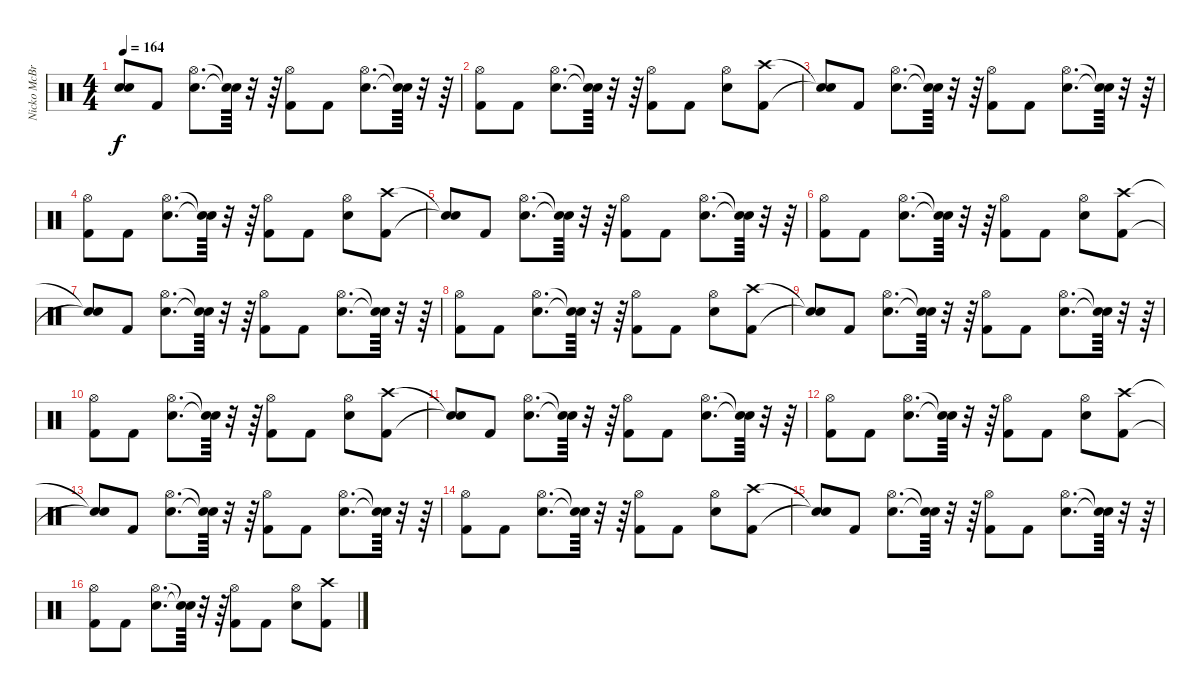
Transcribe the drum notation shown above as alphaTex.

\track ("Nicko McBrian (Drums)" "Nicko McBr") {instrument percussion}
\staff {score}
\articulation defaults
\ts (4 4)
\tempo 164
\clef neutral
\ks c
("Snare (hit)"{t} "Snare (hit)"{t}).8{dy f} "Kick (hit) 2".8 ("Snare (hit) 2" "Hi-Hat (open)").8{d} ("Snare (hit)"{t} "Snare (hit)"{t}).64 r.32 r.64 ("Kick (hit) 2" "Hi-Hat (open)").8 "Kick (hit) 2".8 ("Snare (hit) 2" "Hi-Hat (open)").8{d} ("Snare (hit)"{t} "Snare (hit)"{t}).64 r.32 r.64 |
("Kick (hit) 2" "Hi-Hat (open)").8 "Kick (hit) 2".8 ("Snare (hit) 2" "Hi-Hat (open)").8{d} ("Snare (hit)"{t} "Snare (hit)"{t}).64 r.32 r.64 ("Kick (hit) 2" "Hi-Hat (open)").8 "Kick (hit) 2".8 ("Snare (hit) 2" "Hi-Hat (open)").8 ("Kick (hit) 2" "Crash high (hit)").8 |
("Snare (hit)"{t} "Snare (hit)"{t}).8 "Kick (hit) 2".8 ("Snare (hit) 2" "Hi-Hat (open)").8{d} ("Snare (hit)"{t} "Snare (hit)"{t}).64 r.32 r.64 ("Kick (hit) 2" "Hi-Hat (open)").8 "Kick (hit) 2".8 ("Snare (hit) 2" "Hi-Hat (open)").8{d} ("Snare (hit)"{t} "Snare (hit)"{t}).64 r.32 r.64 |
("Kick (hit) 2" "Hi-Hat (open)").8 "Kick (hit) 2".8 ("Snare (hit) 2" "Hi-Hat (open)").8{d} ("Snare (hit)"{t} "Snare (hit)"{t}).64 r.32 r.64 ("Kick (hit) 2" "Hi-Hat (open)").8 "Kick (hit) 2".8 ("Snare (hit) 2" "Hi-Hat (open)").8 ("Kick (hit) 2" "Crash high (hit)").8 |
("Snare (hit)"{t} "Snare (hit)"{t}).8 "Kick (hit) 2".8 ("Snare (hit) 2" "Hi-Hat (open)").8{d} ("Snare (hit)"{t} "Snare (hit)"{t}).64 r.32 r.64 ("Kick (hit) 2" "Hi-Hat (open)").8 "Kick (hit) 2".8 ("Snare (hit) 2" "Hi-Hat (open)").8{d} ("Snare (hit)"{t} "Snare (hit)"{t}).64 r.32 r.64 |
("Kick (hit) 2" "Hi-Hat (open)").8 "Kick (hit) 2".8 ("Snare (hit) 2" "Hi-Hat (open)").8{d} ("Snare (hit)"{t} "Snare (hit)"{t}).64 r.32 r.64 ("Kick (hit) 2" "Hi-Hat (open)").8 "Kick (hit) 2".8 ("Snare (hit) 2" "Hi-Hat (open)").8 ("Kick (hit) 2" "Crash high (hit)").8 |
("Snare (hit)"{t} "Snare (hit)"{t}).8 "Kick (hit) 2".8 ("Snare (hit) 2" "Hi-Hat (open)").8{d} ("Snare (hit)"{t} "Snare (hit)"{t}).64 r.32 r.64 ("Kick (hit) 2" "Hi-Hat (open)").8 "Kick (hit) 2".8 ("Snare (hit) 2" "Hi-Hat (open)").8{d} ("Snare (hit)"{t} "Snare (hit)"{t}).64 r.32 r.64 |
("Kick (hit) 2" "Hi-Hat (open)").8 "Kick (hit) 2".8 ("Snare (hit) 2" "Hi-Hat (open)").8{d} ("Snare (hit)"{t} "Snare (hit)"{t}).64 r.32 r.64 ("Kick (hit) 2" "Hi-Hat (open)").8 "Kick (hit) 2".8 ("Snare (hit) 2" "Hi-Hat (open)").8 ("Kick (hit) 2" "Crash high (hit)").8 |
("Snare (hit)"{t} "Snare (hit)"{t}).8 "Kick (hit) 2".8 ("Snare (hit) 2" "Hi-Hat (open)").8{d} ("Snare (hit)"{t} "Snare (hit)"{t}).64 r.32 r.64 ("Kick (hit) 2" "Hi-Hat (open)").8 "Kick (hit) 2".8 ("Snare (hit) 2" "Hi-Hat (open)").8{d} ("Snare (hit)"{t} "Snare (hit)"{t}).64 r.32 r.64 |
("Kick (hit) 2" "Hi-Hat (open)").8 "Kick (hit) 2".8 ("Snare (hit) 2" "Hi-Hat (open)").8{d} ("Snare (hit)"{t} "Snare (hit)"{t}).64 r.32 r.64 ("Kick (hit) 2" "Hi-Hat (open)").8 "Kick (hit) 2".8 ("Snare (hit) 2" "Hi-Hat (open)").8 ("Kick (hit) 2" "Crash high (hit)").8 |
("Snare (hit)"{t} "Snare (hit)"{t}).8 "Kick (hit) 2".8 ("Snare (hit) 2" "Hi-Hat (open)").8{d} ("Snare (hit)"{t} "Snare (hit)"{t}).64 r.32 r.64 ("Kick (hit) 2" "Hi-Hat (open)").8 "Kick (hit) 2".8 ("Snare (hit) 2" "Hi-Hat (open)").8{d} ("Snare (hit)"{t} "Snare (hit)"{t}).64 r.32 r.64 |
("Kick (hit) 2" "Hi-Hat (open)").8 "Kick (hit) 2".8 ("Snare (hit) 2" "Hi-Hat (open)").8{d} ("Snare (hit)"{t} "Snare (hit)"{t}).64 r.32 r.64 ("Kick (hit) 2" "Hi-Hat (open)").8 "Kick (hit) 2".8 ("Snare (hit) 2" "Hi-Hat (open)").8 ("Kick (hit) 2" "Crash high (hit)").8 |
("Snare (hit)"{t} "Snare (hit)"{t}).8 "Kick (hit) 2".8 ("Snare (hit) 2" "Hi-Hat (open)").8{d} ("Snare (hit)"{t} "Snare (hit)"{t}).64 r.32 r.64 ("Kick (hit) 2" "Hi-Hat (open)").8 "Kick (hit) 2".8 ("Snare (hit) 2" "Hi-Hat (open)").8{d} ("Snare (hit)"{t} "Snare (hit)"{t}).64 r.32 r.64 |
("Kick (hit) 2" "Hi-Hat (open)").8 "Kick (hit) 2".8 ("Snare (hit) 2" "Hi-Hat (open)").8{d} ("Snare (hit)"{t} "Snare (hit)"{t}).64 r.32 r.64 ("Kick (hit) 2" "Hi-Hat (open)").8 "Kick (hit) 2".8 ("Snare (hit) 2" "Hi-Hat (open)").8 ("Kick (hit) 2" "Crash high (hit)").8 |
("Snare (hit)"{t} "Snare (hit)"{t}).8 "Kick (hit) 2".8 ("Snare (hit) 2" "Hi-Hat (open)").8{d} ("Snare (hit)"{t} "Snare (hit)"{t}).64 r.32 r.64 ("Kick (hit) 2" "Hi-Hat (open)").8 "Kick (hit) 2".8 ("Snare (hit) 2" "Hi-Hat (open)").8{d} ("Snare (hit)"{t} "Snare (hit)"{t}).64 r.32 r.64 |
("Kick (hit) 2" "Hi-Hat (open)").8 "Kick (hit) 2".8 ("Snare (hit) 2" "Hi-Hat (open)").8{d} ("Snare (hit)"{t} "Snare (hit)"{t}).64 r.32 r.64 ("Kick (hit) 2" "Hi-Hat (open)").8 "Kick (hit) 2".8 ("Snare (hit) 2" "Hi-Hat (open)").8 ("Kick (hit) 2" "Crash high (hit)").8
